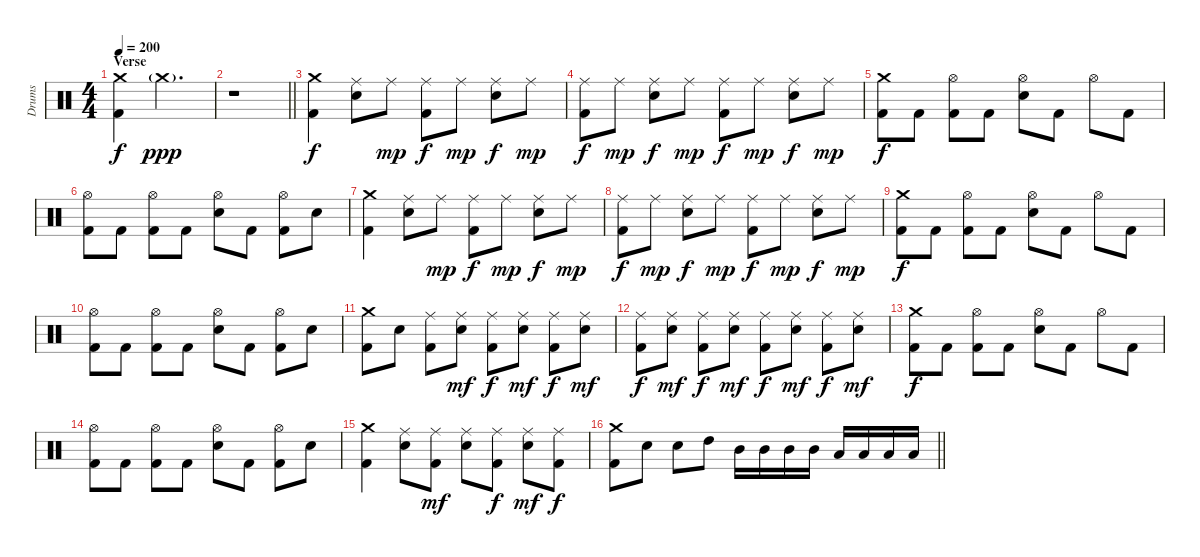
\track ("Drums" "Drums") {instrument percussion}
\staff {score}
\articulation defaults
\ts (4 4)
\section ("" "Verse")
\tempo 200
\clef neutral
\ks c
("Crash medium (hit)" "Kick (hit) 2").4{dy f} "Crash medium (hit)"{g}.2{d dy ppp} |
\barLineRight lightlight
r.1 |
("Crash medium (hit)" "Kick (hit) 2").4{dy f} ("Ride (middle)" "Electric Snare (hit)").8 "Ride (middle)".8{dy mp} ("Ride (middle)" "Kick (hit) 2").8{dy f} "Ride (middle)".8{dy mp} ("Ride (middle)" "Electric Snare (hit)").8{dy f} "Ride (middle)".8{dy mp} |
("Ride (middle)" "Kick (hit) 2").8{dy f} "Ride (middle)".8{dy mp} ("Ride (middle)" "Electric Snare (hit)").8{dy f} "Ride (middle)".8{dy mp} ("Ride (middle)" "Kick (hit) 2").8{dy f} "Ride (middle)".8{dy mp} ("Ride (middle)" "Electric Snare (hit)").8{dy f} "Ride (middle)".8{dy mp} |
("Crash medium (hit)" "Kick (hit) 2").8{dy f} "Kick (hit) 2".8 ("Hi-Hat (open)" "Kick (hit) 2").8 "Kick (hit) 2".8 ("Hi-Hat (open)" "Electric Snare (hit)").8 "Kick (hit) 2".8 "Hi-Hat (open)".8 "Kick (hit) 2".8 |
("Hi-Hat (open)" "Kick (hit) 2").8 "Kick (hit) 2".8 ("Hi-Hat (open)" "Kick (hit) 2").8 "Kick (hit) 2".8 ("Hi-Hat (open)" "Electric Snare (hit)").8 "Kick (hit) 2".8 ("Hi-Hat (open)" "Kick (hit) 2").8 "Electric Snare (hit)".8 |
("Crash medium (hit)" "Kick (hit) 2").4 ("Ride (middle)" "Electric Snare (hit)").8 "Ride (middle)".8{dy mp} ("Ride (middle)" "Kick (hit) 2").8{dy f} "Ride (middle)".8{dy mp} ("Ride (middle)" "Electric Snare (hit)").8{dy f} "Ride (middle)".8{dy mp} |
("Ride (middle)" "Kick (hit) 2").8{dy f} "Ride (middle)".8{dy mp} ("Ride (middle)" "Electric Snare (hit)").8{dy f} "Ride (middle)".8{dy mp} ("Ride (middle)" "Kick (hit) 2").8{dy f} "Ride (middle)".8{dy mp} ("Ride (middle)" "Electric Snare (hit)").8{dy f} "Ride (middle)".8{dy mp} |
("Crash medium (hit)" "Kick (hit) 2").8{dy f} "Kick (hit) 2".8 ("Hi-Hat (open)" "Kick (hit) 2").8 "Kick (hit) 2".8 ("Hi-Hat (open)" "Electric Snare (hit)").8 "Kick (hit) 2".8 "Hi-Hat (open)".8 "Kick (hit) 2".8 |
("Hi-Hat (open)" "Kick (hit) 2").8 "Kick (hit) 2".8 ("Hi-Hat (open)" "Kick (hit) 2").8 "Kick (hit) 2".8 ("Hi-Hat (open)" "Electric Snare (hit)").8 "Kick (hit) 2".8 ("Hi-Hat (open)" "Kick (hit) 2").8 "Electric Snare (hit)".8 |
("Crash medium (hit)" "Kick (hit) 2").8 "Electric Snare (hit)".8 ("Ride (middle)" "Kick (hit) 2").8 ("Ride (middle)" "Electric Snare (hit)").8{dy mf} ("Ride (middle)" "Kick (hit) 2").8{dy f} ("Ride (middle)" "Electric Snare (hit)").8{dy mf} ("Ride (middle)" "Kick (hit) 2").8{dy f} ("Ride (middle)" "Electric Snare (hit)").8{dy mf} |
("Ride (middle)" "Kick (hit) 2").8{dy f} ("Ride (middle)" "Electric Snare (hit)").8{dy mf} ("Ride (middle)" "Kick (hit) 2").8{dy f} ("Ride (middle)" "Electric Snare (hit)").8{dy mf} ("Ride (middle)" "Kick (hit) 2").8{dy f} ("Ride (middle)" "Electric Snare (hit)").8{dy mf} ("Ride (middle)" "Kick (hit) 2").8{dy f} ("Ride (middle)" "Electric Snare (hit)").8{dy mf} |
("Crash medium (hit)" "Kick (hit) 2").8{dy f} "Kick (hit) 2".8 ("Hi-Hat (open)" "Kick (hit) 2").8 "Kick (hit) 2".8 ("Hi-Hat (open)" "Electric Snare (hit)").8 "Kick (hit) 2".8 "Hi-Hat (open)".8 "Kick (hit) 2".8 |
("Hi-Hat (open)" "Kick (hit) 2").8 "Kick (hit) 2".8 ("Hi-Hat (open)" "Kick (hit) 2").8 "Kick (hit) 2".8 ("Hi-Hat (open)" "Electric Snare (hit)").8 "Kick (hit) 2".8 ("Hi-Hat (open)" "Kick (hit) 2").8 "Electric Snare (hit)".8 |
("Crash medium (hit)" "Kick (hit) 2").4 ("Ride (middle)" "Electric Snare (hit)").8 ("Ride (middle)" "Kick (hit) 2").8{dy mf} ("Ride (middle)" "Electric Snare (hit)").8 ("Ride (middle)" "Kick (hit) 2").8{dy f} ("Ride (middle)" "Electric Snare (hit)").8{dy mf} ("Ride (middle)" "Kick (hit) 2").8{dy f} |
\barLineRight lightlight
("Crash medium (hit)" "Kick (hit) 2").8 "Electric Snare (hit)".8 "Electric Snare (hit)".8 "High Tom (hit)".8 "Mid Tom (hit)".16 "Mid Tom (hit)".16 "Mid Tom (hit)".16 "Mid Tom (hit)".16 "Low Tom (hit)".16 "Low Tom (hit)".16 "Low Tom (hit)".16 "Low Tom (hit)".16
